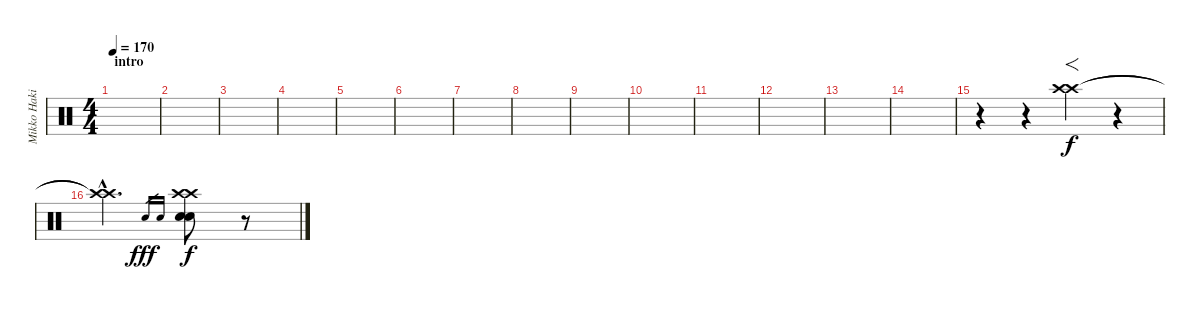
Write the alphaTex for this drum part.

\track ("Mikko Hakila - drums" "Mikko Haki") {instrument percussion}
\staff {score}
\articulation defaults
\ts (4 4)
\section ("" "intro")
\tempo 170
\clef neutral
\ks c
|
|
|
|
|
|
|
|
|
|
|
|
|
|
r.4 r.4 ("Crash high (hit)" "Crash high (hit)").4{f} r.4 |
("Crash high (hit)"{hac t} "Crash high (hit)"{hac t}).2{d} "Snare (hit) 2".16{gr dy fff} "Snare (hit) 2".16{gr} ("Crash high (hit)" "Crash high (hit)" "Snare (hit) 2" "Snare (hit) 2").8{dy f} r.8
